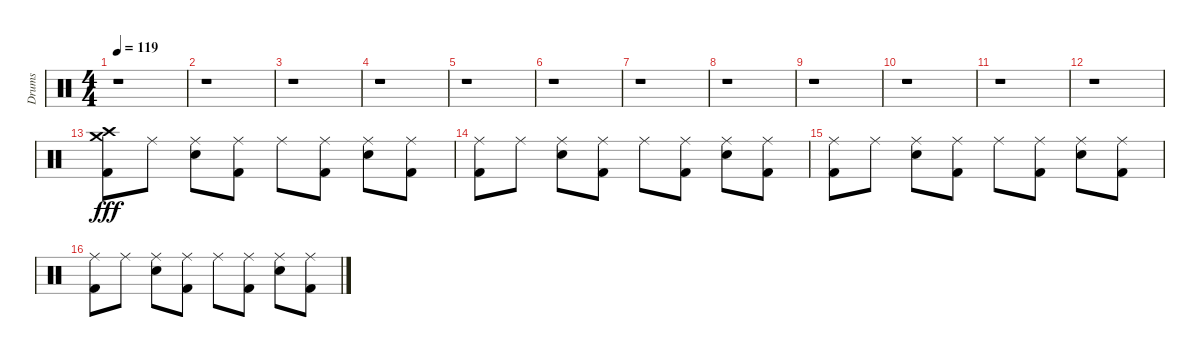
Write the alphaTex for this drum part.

\track ("Drums" "Drums") {instrument percussion}
\staff {score}
\articulation defaults
\ts (4 4)
\tempo 119
\clef neutral
\ks c
r.1{dy fff} |
r.1 |
r.1 |
r.1 |
r.1 |
r.1 |
r.1 |
r.1 |
r.1 |
r.1 |
r.1 |
r.1 |
("Crash high (hit)" "Crash medium (hit)" "Kick (hit) 2").8 "Ride (middle)".8 ("Ride (middle)" "Snare (hit) 2").8 ("Ride (middle)" "Kick (hit) 2").8 "Ride (middle)".8 ("Ride (middle)" "Kick (hit) 2").8 ("Ride (middle)" "Snare (hit) 2").8 ("Ride (middle)" "Kick (hit) 2").8 |
("Ride (middle)" "Kick (hit) 2").8 "Ride (middle)".8 ("Ride (middle)" "Snare (hit) 2").8 ("Ride (middle)" "Kick (hit) 2").8 "Ride (middle)".8 ("Ride (middle)" "Kick (hit) 2").8 ("Ride (middle)" "Snare (hit) 2").8 ("Ride (middle)" "Kick (hit) 2").8 |
("Ride (middle)" "Kick (hit) 2").8 "Ride (middle)".8 ("Ride (middle)" "Snare (hit) 2").8 ("Ride (middle)" "Kick (hit) 2").8 "Ride (middle)".8 ("Ride (middle)" "Kick (hit) 2").8 ("Ride (middle)" "Snare (hit) 2").8 ("Ride (middle)" "Kick (hit) 2").8 |
("Ride (middle)" "Kick (hit) 2").8 "Ride (middle)".8 ("Ride (middle)" "Snare (hit) 2").8 ("Ride (middle)" "Kick (hit) 2").8 "Ride (middle)".8 ("Ride (middle)" "Kick (hit) 2").8 ("Ride (middle)" "Snare (hit) 2").8 ("Ride (middle)" "Kick (hit) 2").8
